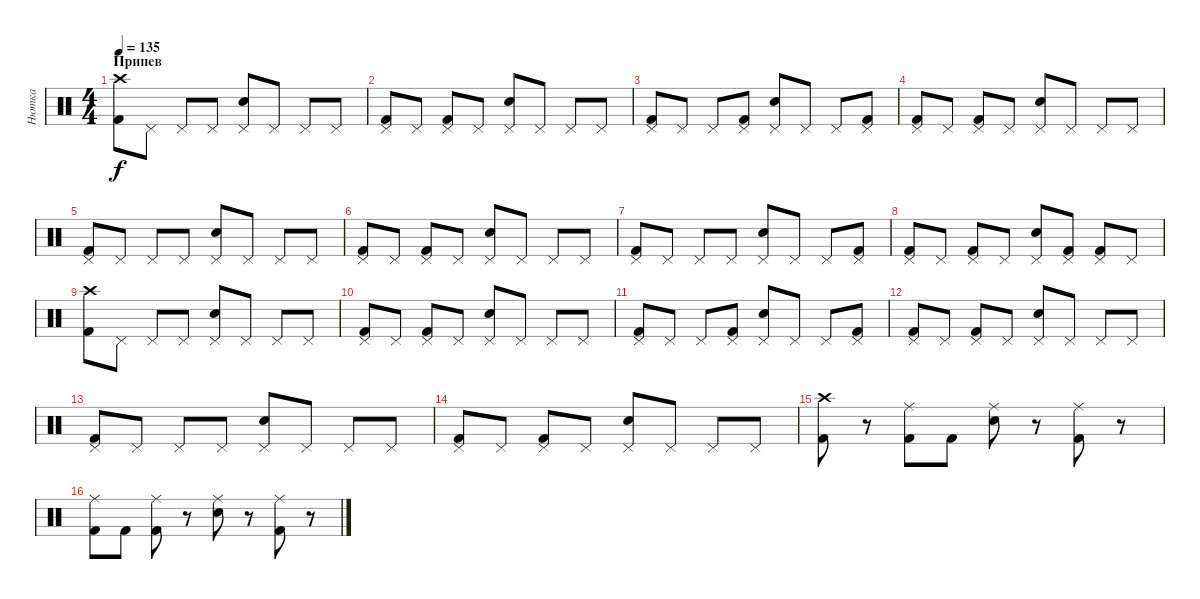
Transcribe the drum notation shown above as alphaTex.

\track ("Нютка" "Нютка") {instrument percussion}
\staff {score}
\articulation defaults
\ts (4 4)
\section ("" "Припев")
\tempo 135
\clef neutral
\ks c
("Crash high (hit)" "Kick (hit) 2").8{dy f} "Pedal Hi-Hat (hit)".8 "Pedal Hi-Hat (hit)".8 "Pedal Hi-Hat (hit)".8 ("Pedal Hi-Hat (hit)" "Snare (hit) 2").8 "Pedal Hi-Hat (hit)".8 "Pedal Hi-Hat (hit)".8 "Pedal Hi-Hat (hit)".8 |
("Pedal Hi-Hat (hit)" "Kick (hit) 2").8 "Pedal Hi-Hat (hit)".8 ("Pedal Hi-Hat (hit)" "Kick (hit) 2").8 "Pedal Hi-Hat (hit)".8 ("Pedal Hi-Hat (hit)" "Snare (hit) 2").8 "Pedal Hi-Hat (hit)".8 "Pedal Hi-Hat (hit)".8 "Pedal Hi-Hat (hit)".8 |
("Pedal Hi-Hat (hit)" "Kick (hit) 2").8 "Pedal Hi-Hat (hit)".8 "Pedal Hi-Hat (hit)".8 ("Pedal Hi-Hat (hit)" "Kick (hit) 2").8 ("Pedal Hi-Hat (hit)" "Snare (hit) 2").8 "Pedal Hi-Hat (hit)".8 "Pedal Hi-Hat (hit)".8 ("Pedal Hi-Hat (hit)" "Kick (hit) 2").8 |
("Pedal Hi-Hat (hit)" "Kick (hit) 2").8 "Pedal Hi-Hat (hit)".8 ("Pedal Hi-Hat (hit)" "Kick (hit) 2").8 "Pedal Hi-Hat (hit)".8 ("Pedal Hi-Hat (hit)" "Snare (hit) 2").8 "Pedal Hi-Hat (hit)".8 "Pedal Hi-Hat (hit)".8 "Pedal Hi-Hat (hit)".8 |
("Pedal Hi-Hat (hit)" "Kick (hit) 2").8 "Pedal Hi-Hat (hit)".8 "Pedal Hi-Hat (hit)".8 "Pedal Hi-Hat (hit)".8 ("Pedal Hi-Hat (hit)" "Snare (hit) 2").8 "Pedal Hi-Hat (hit)".8 "Pedal Hi-Hat (hit)".8 "Pedal Hi-Hat (hit)".8 |
("Pedal Hi-Hat (hit)" "Kick (hit) 2").8 "Pedal Hi-Hat (hit)".8 ("Pedal Hi-Hat (hit)" "Kick (hit) 2").8 "Pedal Hi-Hat (hit)".8 ("Pedal Hi-Hat (hit)" "Snare (hit) 2").8 "Pedal Hi-Hat (hit)".8 "Pedal Hi-Hat (hit)".8 "Pedal Hi-Hat (hit)".8 |
("Pedal Hi-Hat (hit)" "Kick (hit) 2").8 "Pedal Hi-Hat (hit)".8 "Pedal Hi-Hat (hit)".8 "Pedal Hi-Hat (hit)".8 ("Pedal Hi-Hat (hit)" "Snare (hit) 2").8 "Pedal Hi-Hat (hit)".8 "Pedal Hi-Hat (hit)".8 ("Pedal Hi-Hat (hit)" "Kick (hit) 2").8 |
("Pedal Hi-Hat (hit)" "Kick (hit) 2").8 "Pedal Hi-Hat (hit)".8 ("Pedal Hi-Hat (hit)" "Kick (hit) 2").8 "Pedal Hi-Hat (hit)".8 ("Pedal Hi-Hat (hit)" "Snare (hit) 2").8 ("Pedal Hi-Hat (hit)" "Kick (hit) 2").8 ("Pedal Hi-Hat (hit)" "Kick (hit) 2").8 "Pedal Hi-Hat (hit)".8 |
("Crash high (hit)" "Kick (hit) 2").8 "Pedal Hi-Hat (hit)".8 "Pedal Hi-Hat (hit)".8 "Pedal Hi-Hat (hit)".8 ("Pedal Hi-Hat (hit)" "Snare (hit) 2").8 "Pedal Hi-Hat (hit)".8 "Pedal Hi-Hat (hit)".8 "Pedal Hi-Hat (hit)".8 |
("Pedal Hi-Hat (hit)" "Kick (hit) 2").8 "Pedal Hi-Hat (hit)".8 ("Pedal Hi-Hat (hit)" "Kick (hit) 2").8 "Pedal Hi-Hat (hit)".8 ("Pedal Hi-Hat (hit)" "Snare (hit) 2").8 "Pedal Hi-Hat (hit)".8 "Pedal Hi-Hat (hit)".8 "Pedal Hi-Hat (hit)".8 |
("Pedal Hi-Hat (hit)" "Kick (hit) 2").8 "Pedal Hi-Hat (hit)".8 "Pedal Hi-Hat (hit)".8 ("Pedal Hi-Hat (hit)" "Kick (hit) 2").8 ("Pedal Hi-Hat (hit)" "Snare (hit) 2").8 "Pedal Hi-Hat (hit)".8 "Pedal Hi-Hat (hit)".8 ("Pedal Hi-Hat (hit)" "Kick (hit) 2").8 |
("Pedal Hi-Hat (hit)" "Kick (hit) 2").8 "Pedal Hi-Hat (hit)".8 ("Pedal Hi-Hat (hit)" "Kick (hit) 2").8 "Pedal Hi-Hat (hit)".8 ("Pedal Hi-Hat (hit)" "Snare (hit) 2").8 "Pedal Hi-Hat (hit)".8 "Pedal Hi-Hat (hit)".8 "Pedal Hi-Hat (hit)".8 |
("Pedal Hi-Hat (hit)" "Kick (hit) 2").8 "Pedal Hi-Hat (hit)".8 "Pedal Hi-Hat (hit)".8 "Pedal Hi-Hat (hit)".8 ("Pedal Hi-Hat (hit)" "Snare (hit) 2").8 "Pedal Hi-Hat (hit)".8 "Pedal Hi-Hat (hit)".8 "Pedal Hi-Hat (hit)".8 |
("Pedal Hi-Hat (hit)" "Kick (hit) 2").8 "Pedal Hi-Hat (hit)".8 ("Pedal Hi-Hat (hit)" "Kick (hit) 2").8 "Pedal Hi-Hat (hit)".8 ("Pedal Hi-Hat (hit)" "Snare (hit) 2").8 "Pedal Hi-Hat (hit)".8 "Pedal Hi-Hat (hit)".8 "Pedal Hi-Hat (hit)".8 |
("Crash high (hit)" "Kick (hit) 2").8 r.8 ("Ride (middle)" "Kick (hit) 2").8 "Kick (hit) 2".8 ("Ride (middle)" "Snare (hit) 2").8 r.8 ("Ride (middle)" "Kick (hit) 2").8 r.8 |
("Ride (middle)" "Kick (hit) 2").8 "Kick (hit) 2".8 ("Ride (middle)" "Kick (hit) 2").8 r.8 ("Ride (middle)" "Snare (hit) 2").8 r.8 ("Ride (middle)" "Kick (hit) 2").8 r.8
